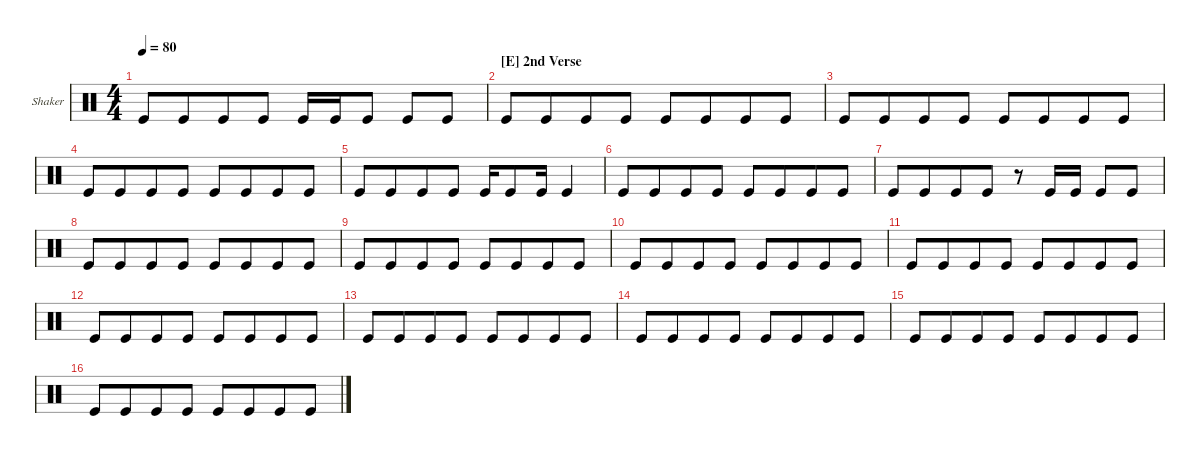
\defaultSystemsLayout 4
\hideDynamics
\bracketExtendMode groupsimilarinstruments
\firstSystemTrackNameOrientation horizontal
\otherSystemsTrackNameOrientation horizontal
\track ("Shaker" "Shaker") {multiBarRest instrument percussion}
\staff {score}
\articulation defaults
\ts (4 4)
\tempo 80
\clef neutral
\ks c "Kick (hit)".8{dy p} "Kick (hit)".8{beam merge} "Kick (hit)".8 "Kick (hit)".8 "Kick (hit)".16 "Kick (hit)".16 "Kick (hit)".8 "Kick (hit)".8 "Kick (hit)".8
|
\section ("E" "2nd Verse")
"Kick (hit)".8 "Kick (hit)".8{beam merge} "Kick (hit)".8 "Kick (hit)".8 "Kick (hit)".8 "Kick (hit)".8{beam merge} "Kick (hit)".8 "Kick (hit)".8 |
"Kick (hit)".8 "Kick (hit)".8{beam merge} "Kick (hit)".8 "Kick (hit)".8 "Kick (hit)".8 "Kick (hit)".8{beam merge} "Kick (hit)".8 "Kick (hit)".8 |
"Kick (hit)".8 "Kick (hit)".8{beam merge} "Kick (hit)".8 "Kick (hit)".8 "Kick (hit)".8 "Kick (hit)".8{beam merge} "Kick (hit)".8 "Kick (hit)".8 |
"Kick (hit)".8 "Kick (hit)".8{beam merge} "Kick (hit)".8 "Kick (hit)".8 "Kick (hit)".16 "Kick (hit)".8 "Kick (hit)".16 "Kick (hit)".4 |
"Kick (hit)".8 "Kick (hit)".8{beam merge} "Kick (hit)".8 "Kick (hit)".8 "Kick (hit)".8 "Kick (hit)".8{beam merge} "Kick (hit)".8 "Kick (hit)".8 |
"Kick (hit)".8 "Kick (hit)".8{beam merge} "Kick (hit)".8 "Kick (hit)".8 r.8 "Kick (hit)".16 "Kick (hit)".16 "Kick (hit)".8 "Kick (hit)".8 |
"Kick (hit)".8 "Kick (hit)".8{beam merge} "Kick (hit)".8 "Kick (hit)".8 "Kick (hit)".8 "Kick (hit)".8{beam merge} "Kick (hit)".8 "Kick (hit)".8 |
"Kick (hit)".8 "Kick (hit)".8{beam merge} "Kick (hit)".8 "Kick (hit)".8 "Kick (hit)".8 "Kick (hit)".8{beam merge} "Kick (hit)".8 "Kick (hit)".8 |
"Kick (hit)".8 "Kick (hit)".8{beam merge} "Kick (hit)".8 "Kick (hit)".8 "Kick (hit)".8 "Kick (hit)".8{beam merge} "Kick (hit)".8 "Kick (hit)".8 |
"Kick (hit)".8 "Kick (hit)".8{beam merge} "Kick (hit)".8 "Kick (hit)".8 "Kick (hit)".8 "Kick (hit)".8{beam merge} "Kick (hit)".8 "Kick (hit)".8 |
"Kick (hit)".8 "Kick (hit)".8{beam merge} "Kick (hit)".8 "Kick (hit)".8 "Kick (hit)".8 "Kick (hit)".8{beam merge} "Kick (hit)".8 "Kick (hit)".8 |
"Kick (hit)".8 "Kick (hit)".8{beam merge} "Kick (hit)".8 "Kick (hit)".8 "Kick (hit)".8 "Kick (hit)".8{beam merge} "Kick (hit)".8 "Kick (hit)".8 |
"Kick (hit)".8 "Kick (hit)".8{beam merge} "Kick (hit)".8 "Kick (hit)".8 "Kick (hit)".8 "Kick (hit)".8{beam merge} "Kick (hit)".8 "Kick (hit)".8 |
"Kick (hit)".8 "Kick (hit)".8{beam merge} "Kick (hit)".8 "Kick (hit)".8 "Kick (hit)".8 "Kick (hit)".8{beam merge} "Kick (hit)".8 "Kick (hit)".8 |
"Kick (hit)".8 "Kick (hit)".8{beam merge} "Kick (hit)".8 "Kick (hit)".8 "Kick (hit)".8 "Kick (hit)".8{beam merge} "Kick (hit)".8 "Kick (hit)".8
